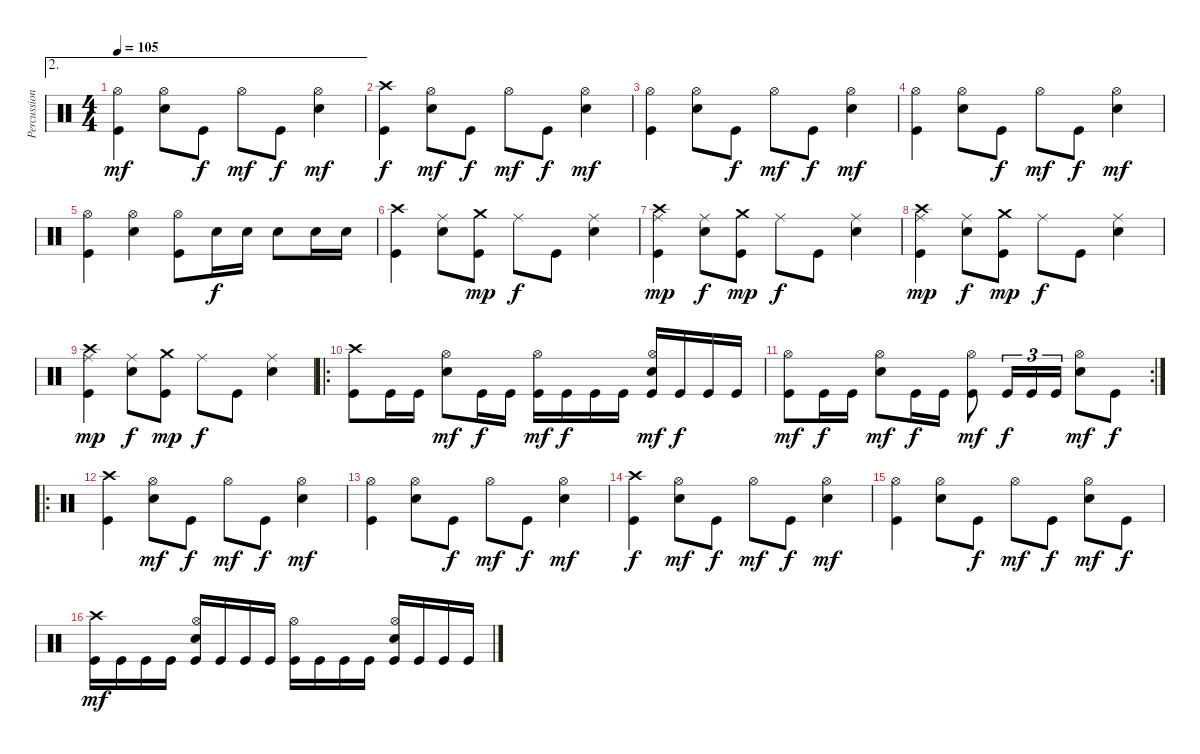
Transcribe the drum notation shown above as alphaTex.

\track ("Percussions" "Percussion") {instrument percussion}
\staff {score}
\articulation defaults
\ae 2
\ts (4 4)
\tempo 105
\clef neutral
\ks c
("Kick (hit)" "Hi-Hat (open)").4{dy mf} ("Electric Snare (hit)" "Hi-Hat (open)").8 "Kick (hit)".8{dy f} "Hi-Hat (open)".8{dy mf} "Kick (hit)".8{dy f} ("Electric Snare (hit)" "Hi-Hat (open)").4{dy mf} |
("Kick (hit)" "Crash high (hit)").4{dy f} ("Electric Snare (hit)" "Hi-Hat (open)").8{dy mf} "Kick (hit)".8{dy f} "Hi-Hat (open)".8{dy mf} "Kick (hit)".8{dy f} ("Electric Snare (hit)" "Hi-Hat (open)").4{dy mf} |
("Kick (hit)" "Hi-Hat (open)").4 ("Electric Snare (hit)" "Hi-Hat (open)").8 "Kick (hit)".8{dy f} "Hi-Hat (open)".8{dy mf} "Kick (hit)".8{dy f} ("Electric Snare (hit)" "Hi-Hat (open)").4{dy mf} |
("Kick (hit)" "Hi-Hat (open)").4 ("Electric Snare (hit)" "Hi-Hat (open)").8 "Kick (hit)".8{dy f} "Hi-Hat (open)".8{dy mf} "Kick (hit)".8{dy f} ("Electric Snare (hit)" "Hi-Hat (open)").4{dy mf} |
("Kick (hit)" "Hi-Hat (open)").4 ("Electric Snare (hit)" "Hi-Hat (open)").4 ("Kick (hit)" "Hi-Hat (open)").8 "Electric Snare (hit)".16{dy f} "Electric Snare (hit)".16 "Electric Snare (hit)".8 "Electric Snare (hit)".16 "Electric Snare (hit)".16 |
("Kick (hit)" "Crash high (hit)").4 ("Electric Snare (hit)" "Ride (middle)").8 ("Kick (hit)" "Crash medium (hit)").8{dy mp} "Ride (middle)".8{dy f} "Kick (hit)".8 ("Electric Snare (hit)" "Ride (middle)").4 |
("Kick (hit)" "Ride (middle)" "Crash high (hit)").4{dy mp} ("Electric Snare (hit)" "Ride (middle)").8{dy f} ("Kick (hit)" "Crash medium (hit)").8{dy mp} "Ride (middle)".8{dy f} "Kick (hit)".8 ("Electric Snare (hit)" "Ride (middle)").4 |
("Kick (hit)" "Ride (middle)" "Crash high (hit)").4{dy mp} ("Electric Snare (hit)" "Ride (middle)").8{dy f} ("Kick (hit)" "Crash medium (hit)").8{dy mp} "Ride (middle)".8{dy f} "Kick (hit)".8 ("Electric Snare (hit)" "Ride (middle)").4 |
("Kick (hit)" "Ride (middle)" "Crash high (hit)").4{dy mp} ("Electric Snare (hit)" "Ride (middle)").8{dy f} ("Kick (hit)" "Crash medium (hit)").8{dy mp} "Ride (middle)".8{dy f} "Kick (hit)".8 ("Electric Snare (hit)" "Ride (middle)").4 |
\ro
("Kick (hit)" "Crash high (hit)").8 "Kick (hit)".16 "Kick (hit)".16 ("Electric Snare (hit)" "Hi-Hat (open)").8{dy mf} "Kick (hit)".16{dy f} "Kick (hit)".16 ("Kick (hit)" "Hi-Hat (open)").16{dy mf} "Kick (hit)".16{dy f} "Kick (hit)".16 "Kick (hit)".16 ("Kick (hit)" "Electric Snare (hit)" "Hi-Hat (open)").16{dy mf} "Kick (hit)".16{dy f} "Kick (hit)".16 "Kick (hit)".16 |
\rc 2
("Kick (hit)" "Hi-Hat (open)").8{dy mf} "Kick (hit)".16{dy f} "Kick (hit)".16 ("Electric Snare (hit)" "Hi-Hat (open)").8{dy mf} "Kick (hit)".16{dy f} "Kick (hit)".16 ("Kick (hit)" "Hi-Hat (open)").8{dy mf} "Kick (hit)".16{tu (3 2) dy f} "Kick (hit)".16{tu (3 2)} "Kick (hit)".16{tu (3 2)} ("Electric Snare (hit)" "Hi-Hat (open)").8{dy mf} "Kick (hit)".8{dy f} |
\ro
("Kick (hit)" "Crash high (hit)").4 ("Electric Snare (hit)" "Hi-Hat (open)").8{dy mf} "Kick (hit)".8{dy f} "Hi-Hat (open)".8{dy mf} "Kick (hit)".8{dy f} ("Electric Snare (hit)" "Hi-Hat (open)").4{dy mf} |
("Kick (hit)" "Hi-Hat (open)").4 ("Electric Snare (hit)" "Hi-Hat (open)").8 "Kick (hit)".8{dy f} "Hi-Hat (open)".8{dy mf} "Kick (hit)".8{dy f} ("Electric Snare (hit)" "Hi-Hat (open)").4{dy mf} |
("Kick (hit)" "Crash high (hit)").4{dy f} ("Electric Snare (hit)" "Hi-Hat (open)").8{dy mf} "Kick (hit)".8{dy f} "Hi-Hat (open)".8{dy mf} "Kick (hit)".8{dy f} ("Electric Snare (hit)" "Hi-Hat (open)").4{dy mf} |
("Kick (hit)" "Hi-Hat (open)").4 ("Electric Snare (hit)" "Hi-Hat (open)").8 "Kick (hit)".8{dy f} "Hi-Hat (open)".8{dy mf} "Kick (hit)".8{dy f} ("Electric Snare (hit)" "Hi-Hat (open)").8{dy mf} "Kick (hit)".8{dy f} |
("Kick (hit)" "Crash high (hit)").16{dy mf} "Kick (hit)".16 "Kick (hit)".16 "Kick (hit)".16 ("Kick (hit)" "Electric Snare (hit)" "Hi-Hat (open)").16 "Kick (hit)".16 "Kick (hit)".16 "Kick (hit)".16 ("Kick (hit)" "Hi-Hat (open)").16 "Kick (hit)".16 "Kick (hit)".16 "Kick (hit)".16 ("Kick (hit)" "Electric Snare (hit)" "Hi-Hat (open)").16 "Kick (hit)".16 "Kick (hit)".16 "Kick (hit)".16
